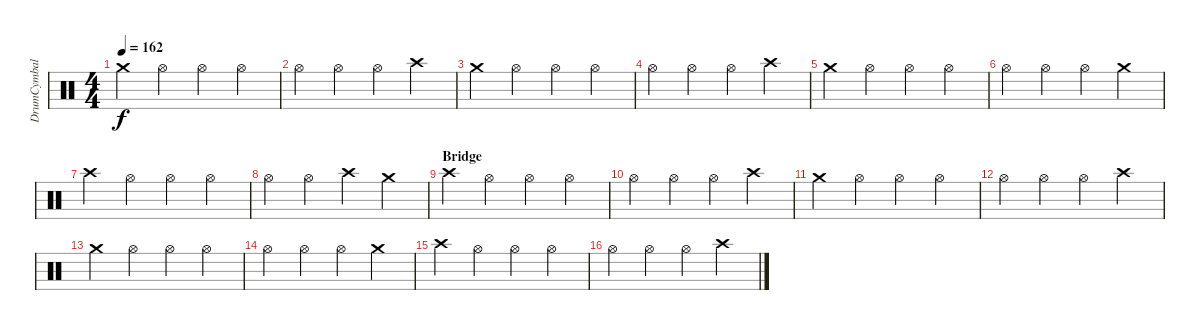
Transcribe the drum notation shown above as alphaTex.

\track ("DrumCymbal" "DrumCymbal") {instrument percussion}
\staff {score}
\articulation defaults
\ts (4 4)
\tempo 162
\clef neutral
\ks c "Crash medium (hit)".4{dy f} "Hi-Hat (open)".4 "Hi-Hat (open)".4 "Hi-Hat (open)".4
|
"Hi-Hat (open)".4 "Hi-Hat (open)".4 "Hi-Hat (open)".4 "Crash high (hit)".4 |
"Crash medium (hit)".4 "Hi-Hat (open)".4 "Hi-Hat (open)".4 "Hi-Hat (open)".4 |
"Hi-Hat (open)".4 "Hi-Hat (open)".4 "Hi-Hat (open)".4 "Crash high (hit)".4 |
"Crash medium (hit)".4 "Hi-Hat (open)".4 "Hi-Hat (open)".4 "Hi-Hat (open)".4 |
"Hi-Hat (open)".4 "Hi-Hat (open)".4 "Hi-Hat (open)".4 "Crash medium (hit)".4 |
"Crash high (hit)".4 "Hi-Hat (open)".4 "Hi-Hat (open)".4 "Hi-Hat (open)".4 |
"Hi-Hat (open)".4 "Hi-Hat (open)".4 "Crash high (hit)".4 "Crash medium (hit)".4 |
\section ("" "Bridge")
"Crash high (hit)".4 "Hi-Hat (open)".4 "Hi-Hat (open)".4 "Hi-Hat (open)".4 |
"Hi-Hat (open)".4 "Hi-Hat (open)".4 "Hi-Hat (open)".4 "Crash high (hit)".4 |
"Crash medium (hit)".4 "Hi-Hat (open)".4 "Hi-Hat (open)".4 "Hi-Hat (open)".4 |
"Hi-Hat (open)".4 "Hi-Hat (open)".4 "Hi-Hat (open)".4 "Crash high (hit)".4 |
"Crash medium (hit)".4 "Hi-Hat (open)".4 "Hi-Hat (open)".4 "Hi-Hat (open)".4 |
"Hi-Hat (open)".4 "Hi-Hat (open)".4 "Hi-Hat (open)".4 "Crash medium (hit)".4 |
"Crash high (hit)".4 "Hi-Hat (open)".4 "Hi-Hat (open)".4 "Hi-Hat (open)".4 |
"Hi-Hat (open)".4 "Hi-Hat (open)".4 "Hi-Hat (open)".4 "Crash high (hit)".4
